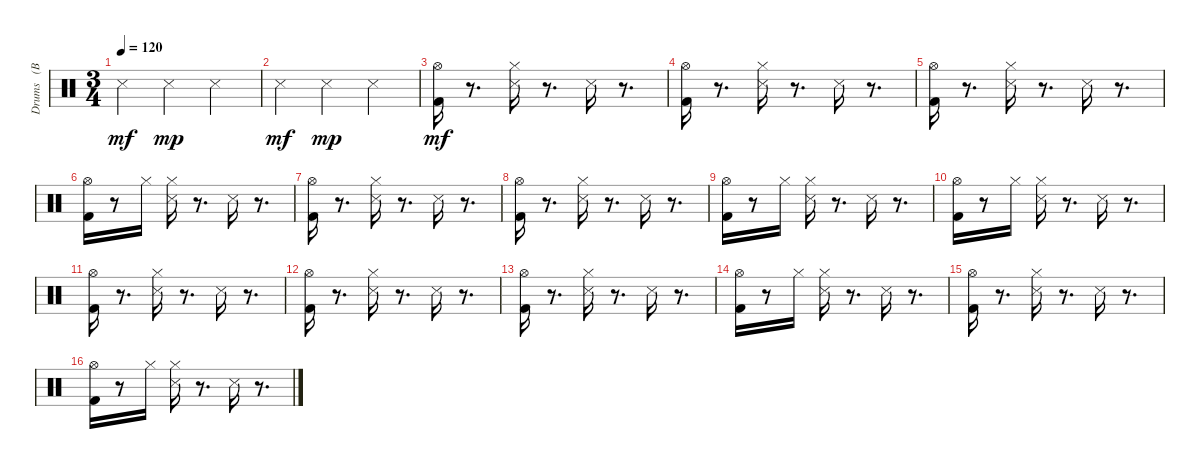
\track ("Drums   (BB)" "Drums   (B") {instrument percussion}
\staff {score}
\articulation defaults
\ts (3 4)
\tempo 120
\clef neutral
\ks c "Snare (side stick) 3".4{dy mf} "Snare (side stick) 3".4{dy mp} "Snare (side stick) 3".4
|
"Snare (side stick) 3".4{dy mf} "Snare (side stick) 3".4{dy mp} "Snare (side stick) 3".4 |
("Kick (hit) 2" "Hi-Hat (open)").16{dy mf} r.8{d} ("Hi-Hat (closed)" "Snare (side stick) 3").16 r.8{d} "Snare (side stick) 3".16 r.8{d} |
("Kick (hit) 2" "Hi-Hat (open)").16 r.8{d} ("Hi-Hat (closed)" "Snare (side stick) 3").16 r.8{d} "Snare (side stick) 3".16 r.8{d} |
("Kick (hit) 2" "Hi-Hat (open)").16 r.8{d} ("Hi-Hat (closed)" "Snare (side stick) 3").16 r.8{d} "Snare (side stick) 3".16 r.8{d} |
("Kick (hit) 2" "Hi-Hat (open)").16 r.8 "Hi-Hat (closed)".16 ("Hi-Hat (closed)" "Snare (side stick) 3").16 r.8{d} "Snare (side stick) 3".16 r.8{d} |
("Kick (hit) 2" "Hi-Hat (open)").16 r.8{d} ("Hi-Hat (closed)" "Snare (side stick) 3").16 r.8{d} "Snare (side stick) 3".16 r.8{d} |
("Kick (hit) 2" "Hi-Hat (open)").16 r.8{d} ("Hi-Hat (closed)" "Snare (side stick) 3").16 r.8{d} "Snare (side stick) 3".16 r.8{d} |
("Kick (hit) 2" "Hi-Hat (open)").16 r.8 "Hi-Hat (closed)".16 ("Hi-Hat (closed)" "Snare (side stick) 3").16 r.8{d} "Snare (side stick) 3".16 r.8{d} |
("Kick (hit) 2" "Hi-Hat (open)").16 r.8 "Hi-Hat (closed)".16 ("Hi-Hat (closed)" "Snare (side stick) 3").16 r.8{d} "Snare (side stick) 3".16 r.8{d} |
("Kick (hit) 2" "Hi-Hat (open)").16 r.8{d} ("Hi-Hat (closed)" "Snare (side stick) 3").16 r.8{d} "Snare (side stick) 3".16 r.8{d} |
("Kick (hit) 2" "Hi-Hat (open)").16 r.8{d} ("Hi-Hat (closed)" "Snare (side stick) 3").16 r.8{d} "Snare (side stick) 3".16 r.8{d} |
("Kick (hit) 2" "Hi-Hat (open)").16 r.8{d} ("Hi-Hat (closed)" "Snare (side stick) 3").16 r.8{d} "Snare (side stick) 3".16 r.8{d} |
("Kick (hit) 2" "Hi-Hat (open)").16 r.8 "Hi-Hat (closed)".16 ("Hi-Hat (closed)" "Snare (side stick) 3").16 r.8{d} "Snare (side stick) 3".16 r.8{d} |
("Kick (hit) 2" "Hi-Hat (open)").16 r.8{d} ("Hi-Hat (closed)" "Snare (side stick) 3").16 r.8{d} "Snare (side stick) 3".16 r.8{d} |
("Kick (hit) 2" "Hi-Hat (open)").16 r.8 "Hi-Hat (closed)".16 ("Hi-Hat (closed)" "Snare (side stick) 3").16 r.8{d} "Snare (side stick) 3".16 r.8{d}
